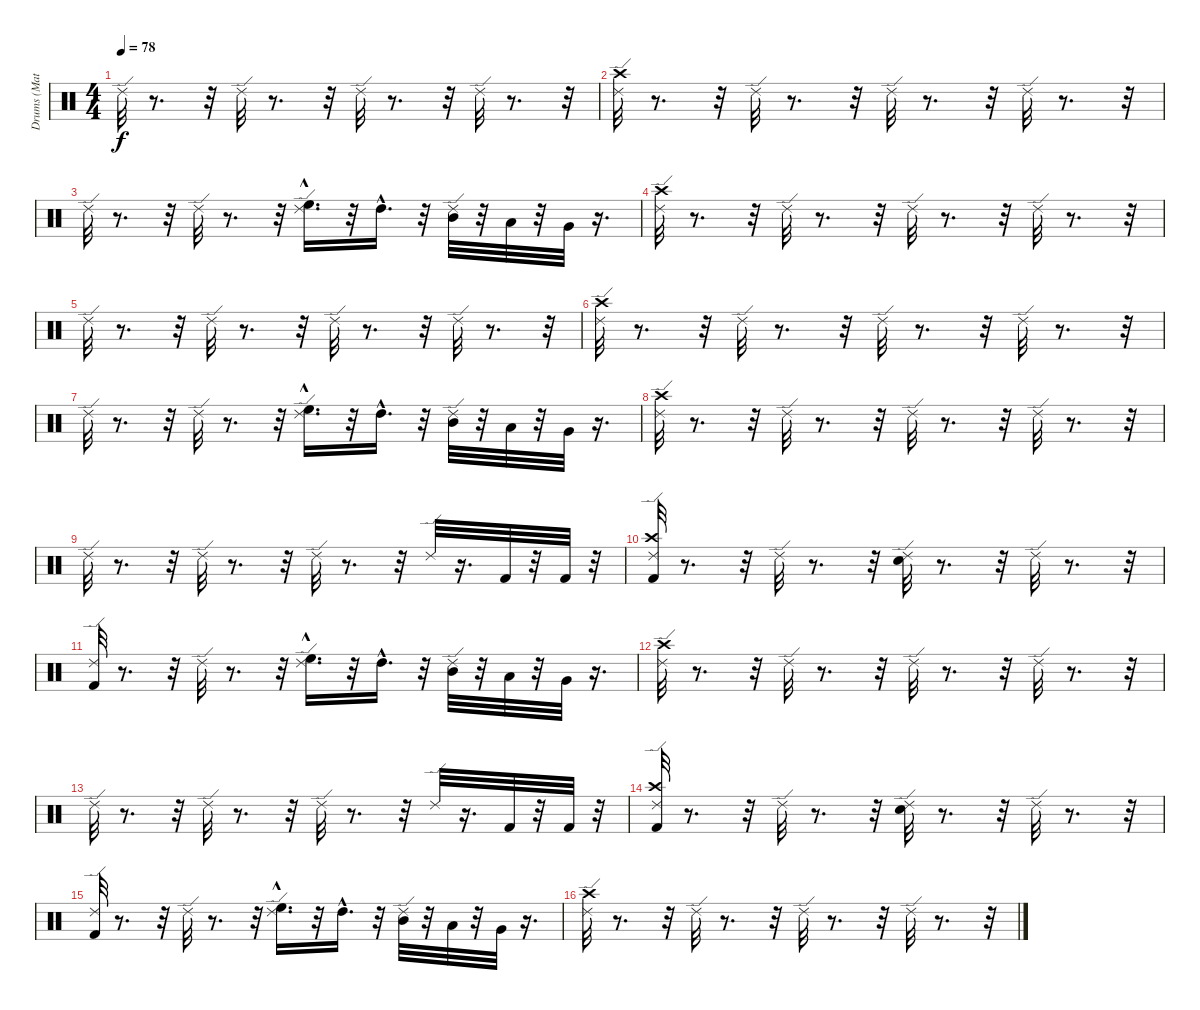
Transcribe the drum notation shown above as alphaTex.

\track ("Drums (Matt)" "Drums (Mat") {instrument percussion}
\staff {score}
\articulation defaults
\ts (4 4)
\tempo 78
\clef neutral
\ks c "Ride (edge) 2".32{dy f}
r.8{d} r.32 "Ride (edge) 2".32 r.8{d} r.32 "Ride (edge) 2".32 r.8{d} r.32 "Ride (edge) 2".32 r.8{d} r.32 |
("Ride (edge) 2" "Crash high (hit)").32 r.8{d} r.32 "Ride (edge) 2".32 r.8{d} r.32 "Ride (edge) 2".32 r.8{d} r.32 "Ride (edge) 2".32 r.8{d} r.32 |
"Ride (edge) 2".32 r.8{d} r.32 "Ride (edge) 2".32 r.8{d} r.32 ("Ride (edge) 2" "High Floor Tom (hit)"{hac}).16{d} r.32 "High Tom (hit)"{hac}.16{d} r.32 ("Ride (edge) 2" "Mid Tom (hit)").32 r.32 "Low Tom (hit)".32 r.32 "Very Low Tom (hit)".32 r.16{d} |
("Ride (edge) 2" "Crash high (hit)").32 r.8{d} r.32 "Ride (edge) 2".32 r.8{d} r.32 "Ride (edge) 2".32 r.8{d} r.32 "Ride (edge) 2".32 r.8{d} r.32 |
"Ride (edge) 2".32 r.8{d} r.32 "Ride (edge) 2".32 r.8{d} r.32 "Ride (edge) 2".32 r.8{d} r.32 "Ride (edge) 2".32 r.8{d} r.32 |
("Ride (edge) 2" "Crash high (hit)").32 r.8{d} r.32 "Ride (edge) 2".32 r.8{d} r.32 "Ride (edge) 2".32 r.8{d} r.32 "Ride (edge) 2".32 r.8{d} r.32 |
"Ride (edge) 2".32 r.8{d} r.32 "Ride (edge) 2".32 r.8{d} r.32 ("Ride (edge) 2" "High Floor Tom (hit)"{hac}).16{d} r.32 "High Tom (hit)"{hac}.16{d} r.32 ("Ride (edge) 2" "Mid Tom (hit)").32 r.32 "Low Tom (hit)".32 r.32 "Very Low Tom (hit)".32 r.16{d} |
("Ride (edge) 2" "Crash high (hit)").32 r.8{d} r.32 "Ride (edge) 2".32 r.8{d} r.32 "Ride (edge) 2".32 r.8{d} r.32 "Ride (edge) 2".32 r.8{d} r.32 |
"Ride (edge) 2".32 r.8{d} r.32 "Ride (edge) 2".32 r.8{d} r.32 "Ride (edge) 2".32 r.8{d} r.32 "Ride (edge) 2".32 r.16{d} "Kick (hit) 2".32 r.32 "Kick (hit) 2".32 r.32 |
("Ride (edge) 2" "Kick (hit) 2" "Crash high (hit)").32 r.8{d} r.32 "Ride (edge) 2".32 r.8{d} r.32 ("Ride (edge) 2" "Snare (hit) 2").32 r.8{d} r.32 "Ride (edge) 2".32 r.8{d} r.32 |
("Ride (edge) 2" "Kick (hit) 2").32 r.8{d} r.32 "Ride (edge) 2".32 r.8{d} r.32 ("Ride (edge) 2" "High Floor Tom (hit)"{hac}).16{d} r.32 "High Tom (hit)"{hac}.16{d} r.32 ("Ride (edge) 2" "Mid Tom (hit)").32 r.32 "Low Tom (hit)".32 r.32 "Very Low Tom (hit)".32 r.16{d} |
("Ride (edge) 2" "Crash high (hit)").32 r.8{d} r.32 "Ride (edge) 2".32 r.8{d} r.32 "Ride (edge) 2".32 r.8{d} r.32 "Ride (edge) 2".32 r.8{d} r.32 |
"Ride (edge) 2".32 r.8{d} r.32 "Ride (edge) 2".32 r.8{d} r.32 "Ride (edge) 2".32 r.8{d} r.32 "Ride (edge) 2".32 r.16{d} "Kick (hit) 2".32 r.32 "Kick (hit) 2".32 r.32 |
("Ride (edge) 2" "Kick (hit) 2" "Crash high (hit)").32 r.8{d} r.32 "Ride (edge) 2".32 r.8{d} r.32 ("Ride (edge) 2" "Snare (hit) 2").32 r.8{d} r.32 "Ride (edge) 2".32 r.8{d} r.32 |
("Ride (edge) 2" "Kick (hit) 2").32 r.8{d} r.32 "Ride (edge) 2".32 r.8{d} r.32 ("Ride (edge) 2" "High Floor Tom (hit)"{hac}).16{d} r.32 "High Tom (hit)"{hac}.16{d} r.32 ("Ride (edge) 2" "Mid Tom (hit)").32 r.32 "Low Tom (hit)".32 r.32 "Very Low Tom (hit)".32 r.16{d} |
("Ride (edge) 2" "Crash high (hit)").32 r.8{d} r.32 "Ride (edge) 2".32 r.8{d} r.32 "Ride (edge) 2".32 r.8{d} r.32 "Ride (edge) 2".32 r.8{d} r.32
